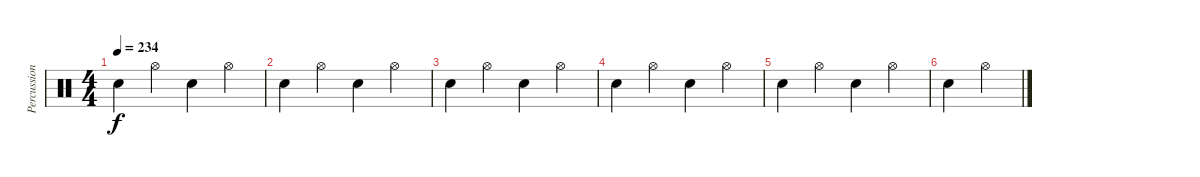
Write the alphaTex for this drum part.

\track ("Percussion" "Percussion") {instrument percussion}
\staff {score}
\articulation defaults
\ts (4 4)
\tempo 234
\clef neutral
\ks c "Snare (hit) 2".4{dy f} "Hi-Hat (open)".4 "Snare (hit) 2".4 "Hi-Hat (open)".4
|
"Snare (hit) 2".4 "Hi-Hat (open)".4 "Snare (hit) 2".4 "Hi-Hat (open)".4 |
"Snare (hit) 2".4 "Hi-Hat (open)".4 "Snare (hit) 2".4 "Hi-Hat (open)".4 |
"Snare (hit) 2".4 "Hi-Hat (open)".4 "Snare (hit) 2".4 "Hi-Hat (open)".4 |
"Snare (hit) 2".4 "Hi-Hat (open)".4 "Snare (hit) 2".4 "Hi-Hat (open)".4 |
"Snare (hit) 2".4 "Hi-Hat (open)".4
